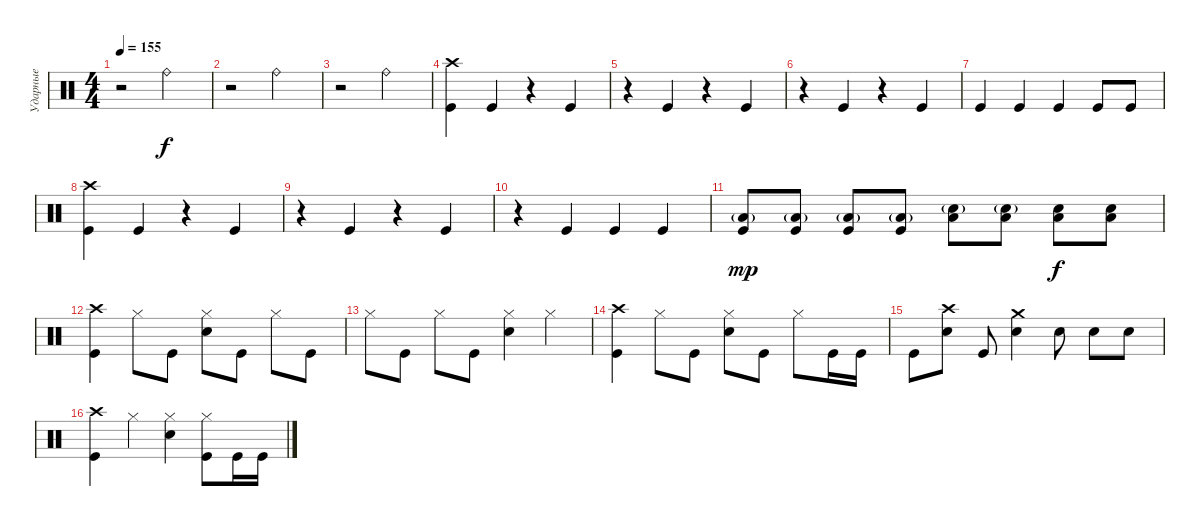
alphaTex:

\track ("Ударные" "Ударные") {instrument percussion}
\staff {score}
\articulation defaults
\ts (4 4)
\tempo 155
\clef neutral
\ks c
r.2{dy f} "Ride (bell)".2 |
r.2 "Ride (bell)".2 |
r.2 "Ride (bell)".2 |
("Crash high (hit)" "Kick (hit)").4 "Kick (hit)".4 r.4 "Kick (hit)".4 |
r.4 "Kick (hit)".4 r.4 "Kick (hit)".4 |
r.4 "Kick (hit)".4 r.4 "Kick (hit)".4 |
"Kick (hit)".4 "Kick (hit)".4 "Kick (hit)".4 "Kick (hit)".8 "Kick (hit)".8 |
("Crash high (hit)" "Kick (hit)").4 "Kick (hit)".4 r.4 "Kick (hit)".4 |
r.4 "Kick (hit)".4 r.4 "Kick (hit)".4 |
r.4 "Kick (hit)".4 "Kick (hit)".4 "Kick (hit)".4 |
("Low Tom (hit)"{g} "Kick (hit)").8{dy mp} ("Low Tom (hit)"{g} "Kick (hit)").8 ("Low Tom (hit)"{g} "Kick (hit)").8 ("Low Tom (hit)"{g} "Kick (hit)").8 ("Electric Snare (hit)"{g} "Low Tom (hit)").8 ("Electric Snare (hit)"{g} "Low Tom (hit)").8 ("Electric Snare (hit)" "Low Tom (hit)").8{dy f} ("Electric Snare (hit)" "Low Tom (hit)").8 |
("Crash high (hit)" "Kick (hit)").4 "Hi-Hat (closed)".8 "Kick (hit)".8 ("Hi-Hat (closed)" "Electric Snare (hit)").8 "Kick (hit)".8 "Hi-Hat (closed)".8 "Kick (hit)".8 |
"Hi-Hat (closed)".8 "Kick (hit)".8 "Hi-Hat (closed)".8 "Kick (hit)".8 ("Hi-Hat (closed)" "Electric Snare (hit)").4 "Hi-Hat (closed)".4 |
("Crash high (hit)" "Kick (hit)").4 "Hi-Hat (closed)".8 "Kick (hit)".8 ("Hi-Hat (closed)" "Electric Snare (hit)").8 "Kick (hit)".8 "Hi-Hat (closed)".8 "Kick (hit)".16 "Kick (hit)".16 |
"Kick (hit)".8 ("Crash high (hit)" "Electric Snare (hit)").8 "Kick (hit)".8 ("Crash medium (hit)" "Electric Snare (hit)").4 "Electric Snare (hit)".8 "Electric Snare (hit)".8 "Electric Snare (hit)".8 |
("Crash high (hit)" "Kick (hit)").4 "Hi-Hat (closed)".4 ("Hi-Hat (closed)" "Electric Snare (hit)").4 ("Hi-Hat (closed)" "Kick (hit)").8 "Kick (hit)".16 "Kick (hit)".16
